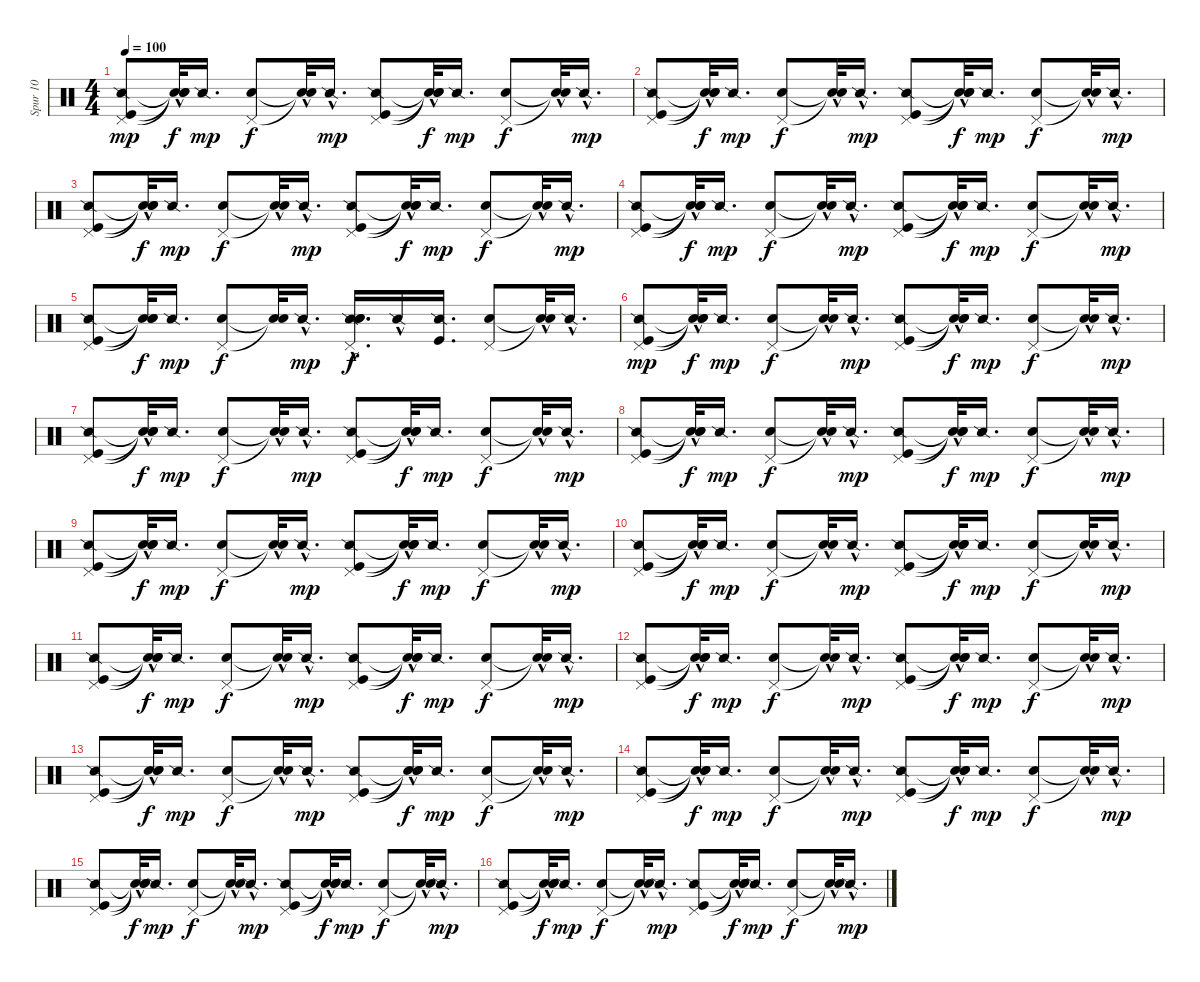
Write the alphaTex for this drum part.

\track ("Spur 10" "Spur 10") {instrument percussion}
\staff {score}
\articulation defaults
\ts (4 4)
\tempo 100
\clef neutral
\ks c
("Snare (side stick) 2" "Kick (hit)" "Pedal Hi-Hat (hit)").8{dy mp} ("Snare (hit)"{t} "Snare (hit)"{hac t} "Snare (hit)"{t}).32{dy f} "Snare (side stick) 2".16{d dy mp} ("Electric Snare (hit)" "Pedal Hi-Hat (hit)").8{dy f} ("Snare (hit)"{hac t} "Snare (hit)"{t}).32 "Snare (side stick) 2"{hac}.16{d dy mp} ("Snare (side stick) 2" "Kick (hit)" "Pedal Hi-Hat (hit)").8 ("Snare (hit)"{t} "Snare (hit)"{hac t} "Snare (hit)"{t}).32{dy f} "Snare (side stick) 2".16{d dy mp} ("Electric Snare (hit)" "Pedal Hi-Hat (hit)").8{dy f} ("Snare (hit)"{hac t} "Snare (hit)"{t}).32 "Snare (side stick) 2"{hac}.16{d dy mp} |
("Snare (side stick) 2" "Kick (hit)" "Pedal Hi-Hat (hit)").8 ("Snare (hit)"{t} "Snare (hit)"{hac t} "Snare (hit)"{t}).32{dy f} "Snare (side stick) 2".16{d dy mp} ("Electric Snare (hit)" "Pedal Hi-Hat (hit)").8{dy f} ("Snare (hit)"{hac t} "Snare (hit)"{t}).32 "Snare (side stick) 2"{hac}.16{d dy mp} ("Snare (side stick) 2" "Kick (hit)" "Pedal Hi-Hat (hit)").8 ("Snare (hit)"{t} "Snare (hit)"{hac t} "Snare (hit)"{t}).32{dy f} "Snare (side stick) 2".16{d dy mp} ("Electric Snare (hit)" "Pedal Hi-Hat (hit)").8{dy f} ("Snare (hit)"{hac t} "Snare (hit)"{t}).32 "Snare (side stick) 2"{hac}.16{d dy mp} |
("Snare (side stick) 2" "Kick (hit)" "Pedal Hi-Hat (hit)").8 ("Snare (hit)"{t} "Snare (hit)"{hac t} "Snare (hit)"{t}).32{dy f} "Snare (side stick) 2".16{d dy mp} ("Electric Snare (hit)" "Pedal Hi-Hat (hit)").8{dy f} ("Snare (hit)"{hac t} "Snare (hit)"{t}).32 "Snare (side stick) 2"{hac}.16{d dy mp} ("Snare (side stick) 2" "Kick (hit)" "Pedal Hi-Hat (hit)").8 ("Snare (hit)"{t} "Snare (hit)"{hac t} "Snare (hit)"{t}).32{dy f} "Snare (side stick) 2".16{d dy mp} ("Electric Snare (hit)" "Pedal Hi-Hat (hit)").8{dy f} ("Snare (hit)"{hac t} "Snare (hit)"{t}).32 "Snare (side stick) 2"{hac}.16{d dy mp} |
("Snare (side stick) 2" "Kick (hit)" "Pedal Hi-Hat (hit)").8 ("Snare (hit)"{t} "Snare (hit)"{hac t} "Snare (hit)"{t}).32{dy f} "Snare (side stick) 2".16{d dy mp} ("Electric Snare (hit)" "Pedal Hi-Hat (hit)").8{dy f} ("Snare (hit)"{hac t} "Snare (hit)"{t}).32 "Snare (side stick) 2"{hac}.16{d dy mp} ("Snare (side stick) 2" "Kick (hit)" "Pedal Hi-Hat (hit)").8 ("Snare (hit)"{t} "Snare (hit)"{hac t} "Snare (hit)"{t}).32{dy f} "Snare (side stick) 2".16{d dy mp} ("Electric Snare (hit)" "Pedal Hi-Hat (hit)").8{dy f} ("Snare (hit)"{hac t} "Snare (hit)"{t}).32 "Snare (side stick) 2"{hac}.16{d dy mp} |
("Snare (side stick) 2" "Kick (hit)" "Pedal Hi-Hat (hit)").8 ("Snare (hit)"{t} "Snare (hit)"{t} "Snare (hit)"{t}).32{dy f} "Snare (side stick) 2".16{d dy mp} ("Electric Snare (hit)" "Pedal Hi-Hat (hit)").8{dy f} ("Snare (hit)"{t} "Snare (hit)"{t}).32 "Snare (side stick) 2"{hac}.16{d dy mp} ("Snare (side stick) 2"{hac} "Metronome (bell)" "Electric Snare (hit)" "Pedal Hi-Hat (hit)").16{d dy f} "Snare (side stick) 2"{hac}.16 ("Snare (side stick) 2" "Kick (hit)").16{d} ("Electric Snare (hit)" "Pedal Hi-Hat (hit)").8 ("Snare (hit)"{hac t} "Snare (hit)"{t}).32 "Snare (side stick) 2"{hac}.16{d} |
("Snare (side stick) 2" "Kick (hit)" "Pedal Hi-Hat (hit)").8{dy mp} ("Snare (hit)"{t} "Snare (hit)"{hac t} "Snare (hit)"{t}).32{dy f} "Snare (side stick) 2".16{d dy mp} ("Electric Snare (hit)" "Pedal Hi-Hat (hit)").8{dy f} ("Snare (hit)"{hac t} "Snare (hit)"{t}).32 "Snare (side stick) 2"{hac}.16{d dy mp} ("Snare (side stick) 2" "Kick (hit)" "Pedal Hi-Hat (hit)").8 ("Snare (hit)"{t} "Snare (hit)"{hac t} "Snare (hit)"{t}).32{dy f} "Snare (side stick) 2".16{d dy mp} ("Electric Snare (hit)" "Pedal Hi-Hat (hit)").8{dy f} ("Snare (hit)"{hac t} "Snare (hit)"{t}).32 "Snare (side stick) 2"{hac}.16{d dy mp} |
("Snare (side stick) 2" "Kick (hit)" "Pedal Hi-Hat (hit)").8 ("Snare (hit)"{t} "Snare (hit)"{hac t} "Snare (hit)"{t}).32{dy f} "Snare (side stick) 2".16{d dy mp} ("Electric Snare (hit)" "Pedal Hi-Hat (hit)").8{dy f} ("Snare (hit)"{hac t} "Snare (hit)"{t}).32 "Snare (side stick) 2"{hac}.16{d dy mp} ("Snare (side stick) 2" "Kick (hit)" "Pedal Hi-Hat (hit)").8 ("Snare (hit)"{t} "Snare (hit)"{hac t} "Snare (hit)"{t}).32{dy f} "Snare (side stick) 2".16{d dy mp} ("Electric Snare (hit)" "Pedal Hi-Hat (hit)").8{dy f} ("Snare (hit)"{hac t} "Snare (hit)"{t}).32 "Snare (side stick) 2"{hac}.16{d dy mp} |
("Snare (side stick) 2" "Kick (hit)" "Pedal Hi-Hat (hit)").8 ("Snare (hit)"{t} "Snare (hit)"{hac t} "Snare (hit)"{t}).32{dy f} "Snare (side stick) 2".16{d dy mp} ("Electric Snare (hit)" "Pedal Hi-Hat (hit)").8{dy f} ("Snare (hit)"{hac t} "Snare (hit)"{t}).32 "Snare (side stick) 2"{hac}.16{d dy mp} ("Snare (side stick) 2" "Kick (hit)" "Pedal Hi-Hat (hit)").8 ("Snare (hit)"{t} "Snare (hit)"{hac t} "Snare (hit)"{t}).32{dy f} "Snare (side stick) 2".16{d dy mp} ("Electric Snare (hit)" "Pedal Hi-Hat (hit)").8{dy f} ("Snare (hit)"{hac t} "Snare (hit)"{t}).32 "Snare (side stick) 2"{hac}.16{d dy mp} |
("Snare (side stick) 2" "Kick (hit)" "Pedal Hi-Hat (hit)").8 ("Snare (hit)"{t} "Snare (hit)"{hac t} "Snare (hit)"{t}).32{dy f} "Snare (side stick) 2".16{d dy mp} ("Electric Snare (hit)" "Pedal Hi-Hat (hit)").8{dy f} ("Snare (hit)"{hac t} "Snare (hit)"{t}).32 "Snare (side stick) 2"{hac}.16{d dy mp} ("Snare (side stick) 2" "Kick (hit)" "Pedal Hi-Hat (hit)").8 ("Snare (hit)"{t} "Snare (hit)"{hac t} "Snare (hit)"{t}).32{dy f} "Snare (side stick) 2".16{d dy mp} ("Electric Snare (hit)" "Pedal Hi-Hat (hit)").8{dy f} ("Snare (hit)"{hac t} "Snare (hit)"{t}).32 "Snare (side stick) 2"{hac}.16{d dy mp} |
("Snare (side stick) 2" "Kick (hit)" "Pedal Hi-Hat (hit)").8 ("Snare (hit)"{t} "Snare (hit)"{hac t} "Snare (hit)"{t}).32{dy f} "Snare (side stick) 2".16{d dy mp} ("Electric Snare (hit)" "Pedal Hi-Hat (hit)").8{dy f} ("Snare (hit)"{hac t} "Snare (hit)"{t}).32 "Snare (side stick) 2"{hac}.16{d dy mp} ("Snare (side stick) 2" "Kick (hit)" "Pedal Hi-Hat (hit)").8 ("Snare (hit)"{t} "Snare (hit)"{hac t} "Snare (hit)"{t}).32{dy f} "Snare (side stick) 2".16{d dy mp} ("Electric Snare (hit)" "Pedal Hi-Hat (hit)").8{dy f} ("Snare (hit)"{hac t} "Snare (hit)"{t}).32 "Snare (side stick) 2"{hac}.16{d dy mp} |
("Snare (side stick) 2" "Kick (hit)" "Pedal Hi-Hat (hit)").8 ("Snare (hit)"{t} "Snare (hit)"{hac t} "Snare (hit)"{t}).32{dy f} "Snare (side stick) 2".16{d dy mp} ("Electric Snare (hit)" "Pedal Hi-Hat (hit)").8{dy f} ("Snare (hit)"{hac t} "Snare (hit)"{t}).32 "Snare (side stick) 2"{hac}.16{d dy mp} ("Snare (side stick) 2" "Kick (hit)" "Pedal Hi-Hat (hit)").8 ("Snare (hit)"{t} "Snare (hit)"{hac t} "Snare (hit)"{t}).32{dy f} "Snare (side stick) 2".16{d dy mp} ("Electric Snare (hit)" "Pedal Hi-Hat (hit)").8{dy f} ("Snare (hit)"{hac t} "Snare (hit)"{t}).32 "Snare (side stick) 2"{hac}.16{d dy mp} |
("Snare (side stick) 2" "Kick (hit)" "Pedal Hi-Hat (hit)").8 ("Snare (hit)"{t} "Snare (hit)"{hac t} "Snare (hit)"{t}).32{dy f} "Snare (side stick) 2".16{d dy mp} ("Electric Snare (hit)" "Pedal Hi-Hat (hit)").8{dy f} ("Snare (hit)"{hac t} "Snare (hit)"{t}).32 "Snare (side stick) 2"{hac}.16{d dy mp} ("Snare (side stick) 2" "Kick (hit)" "Pedal Hi-Hat (hit)").8 ("Snare (hit)"{t} "Snare (hit)"{hac t} "Snare (hit)"{t}).32{dy f} "Snare (side stick) 2".16{d dy mp} ("Electric Snare (hit)" "Pedal Hi-Hat (hit)").8{dy f} ("Snare (hit)"{hac t} "Snare (hit)"{t}).32 "Snare (side stick) 2"{hac}.16{d dy mp} |
("Snare (side stick) 2" "Kick (hit)" "Pedal Hi-Hat (hit)").8 ("Snare (hit)"{t} "Snare (hit)"{hac t} "Snare (hit)"{t}).32{dy f} "Snare (side stick) 2".16{d dy mp} ("Electric Snare (hit)" "Pedal Hi-Hat (hit)").8{dy f} ("Snare (hit)"{hac t} "Snare (hit)"{t}).32 "Snare (side stick) 2"{hac}.16{d dy mp} ("Snare (side stick) 2" "Kick (hit)" "Pedal Hi-Hat (hit)").8 ("Snare (hit)"{t} "Snare (hit)"{hac t} "Snare (hit)"{t}).32{dy f} "Snare (side stick) 2".16{d dy mp} ("Electric Snare (hit)" "Pedal Hi-Hat (hit)").8{dy f} ("Snare (hit)"{hac t} "Snare (hit)"{t}).32 "Snare (side stick) 2"{hac}.16{d dy mp} |
("Snare (side stick) 2" "Kick (hit)" "Pedal Hi-Hat (hit)").8 ("Snare (hit)"{t} "Snare (hit)"{hac t} "Snare (hit)"{t}).32{dy f} "Snare (side stick) 2".16{d dy mp} ("Electric Snare (hit)" "Pedal Hi-Hat (hit)").8{dy f} ("Snare (hit)"{hac t} "Snare (hit)"{t}).32 "Snare (side stick) 2"{hac}.16{d dy mp} ("Snare (side stick) 2" "Kick (hit)" "Pedal Hi-Hat (hit)").8 ("Snare (hit)"{t} "Snare (hit)"{hac t} "Snare (hit)"{t}).32{dy f} "Snare (side stick) 2".16{d dy mp} ("Electric Snare (hit)" "Pedal Hi-Hat (hit)").8{dy f} ("Snare (hit)"{hac t} "Snare (hit)"{t}).32 "Snare (side stick) 2"{hac}.16{d dy mp} |
("Snare (side stick) 2" "Kick (hit)" "Pedal Hi-Hat (hit)").8 ("Snare (hit)"{t} "Snare (hit)"{hac t} "Snare (hit)"{t}).32{dy f} "Snare (side stick) 2".16{d dy mp} ("Electric Snare (hit)" "Pedal Hi-Hat (hit)").8{dy f} ("Snare (hit)"{hac t} "Snare (hit)"{t}).32 "Snare (side stick) 2"{hac}.16{d dy mp} ("Snare (side stick) 2" "Kick (hit)" "Pedal Hi-Hat (hit)").8 ("Snare (hit)"{t} "Snare (hit)"{hac t} "Snare (hit)"{t}).32{dy f} "Snare (side stick) 2".16{d dy mp} ("Electric Snare (hit)" "Pedal Hi-Hat (hit)").8{dy f} ("Snare (hit)"{hac t} "Snare (hit)"{t}).32 "Snare (side stick) 2"{hac}.16{d dy mp} |
("Snare (side stick) 2" "Kick (hit)" "Pedal Hi-Hat (hit)").8 ("Snare (hit)"{t} "Snare (hit)"{hac t} "Snare (hit)"{t}).32{dy f} "Snare (side stick) 2".16{d dy mp} ("Electric Snare (hit)" "Pedal Hi-Hat (hit)").8{dy f} ("Snare (hit)"{hac t} "Snare (hit)"{t}).32 "Snare (side stick) 2"{hac}.16{d dy mp} ("Snare (side stick) 2" "Kick (hit)" "Pedal Hi-Hat (hit)").8 ("Snare (hit)"{t} "Snare (hit)"{hac t} "Snare (hit)"{t}).32{dy f} "Snare (side stick) 2".16{d dy mp} ("Electric Snare (hit)" "Pedal Hi-Hat (hit)").8{dy f} ("Snare (hit)"{hac t} "Snare (hit)"{t}).32 "Snare (side stick) 2"{hac}.16{d dy mp}
